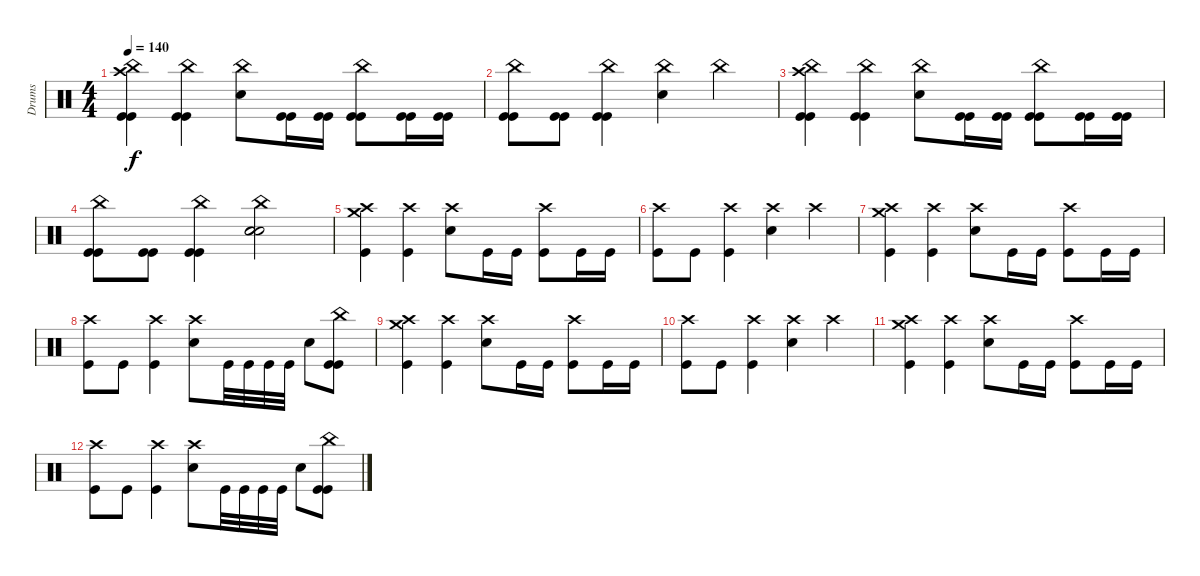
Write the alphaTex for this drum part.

\track ("Drums" "Drums") {instrument percussion bank 97}
\staff {score}
\articulation defaults
\ts (4 4)
\tempo 140
\clef neutral
\ks c
("Crash high (hit)" "China (hit)" "Kick (hit)" "Kick (hit)").4{dy f} ("China (hit)" "Kick (hit)" "Kick (hit)").4 ("China (hit)" "Electric Snare (hit)").8 ("Kick (hit)" "Kick (hit)").16 ("Kick (hit)" "Kick (hit)").16 ("China (hit)" "Kick (hit)" "Kick (hit)").8 ("Kick (hit)" "Kick (hit)").16 ("Kick (hit)" "Kick (hit)").16 |
("China (hit)" "Kick (hit)" "Kick (hit)").8 ("Kick (hit)" "Kick (hit)").8 ("China (hit)" "Kick (hit)" "Kick (hit)").4 ("China (hit)" "Electric Snare (hit)").4 "China (hit)".4 |
("Crash high (hit)" "China (hit)" "Kick (hit)" "Kick (hit)").4 ("China (hit)" "Kick (hit)" "Kick (hit)").4 ("China (hit)" "Electric Snare (hit)").8 ("Kick (hit)" "Kick (hit)").16 ("Kick (hit)" "Kick (hit)").16 ("China (hit)" "Kick (hit)" "Kick (hit)").8 ("Kick (hit)" "Kick (hit)").16 ("Kick (hit)" "Kick (hit)").16 |
("China (hit)" "Kick (hit)" "Kick (hit)").8 ("Kick (hit)" "Kick (hit)").8 ("China (hit)" "Kick (hit)" "Kick (hit)").4 ("China (hit)" "Electric Snare (hit)" "Electric Snare (hit)" "Electric Snare (hit)").2 |
("Crash medium (hit)" "Crash high (hit)" "Kick (hit)").4 ("Crash high (hit)" "Kick (hit)").4 ("Crash high (hit)" "Electric Snare (hit)").8 "Kick (hit)".16 "Kick (hit)".16 ("Crash high (hit)" "Kick (hit)").8 "Kick (hit)".16 "Kick (hit)".16 |
("Crash high (hit)" "Kick (hit)").8 "Kick (hit)".8 ("Crash high (hit)" "Kick (hit)").4 ("Crash high (hit)" "Electric Snare (hit)").4 "Crash high (hit)".4 |
("Crash medium (hit)" "Crash high (hit)" "Kick (hit)").4 ("Crash high (hit)" "Kick (hit)").4 ("Crash high (hit)" "Electric Snare (hit)").8 "Kick (hit)".16 "Kick (hit)".16 ("Crash high (hit)" "Kick (hit)").8 "Kick (hit)".16 "Kick (hit)".16 |
("Crash high (hit)" "Kick (hit)").8 "Kick (hit)".8 ("Crash high (hit)" "Kick (hit)").4 ("Crash high (hit)" "Electric Snare (hit)").8 "Kick (hit)".32 "Kick (hit)".32 "Kick (hit)".32 "Kick (hit)".32 "Electric Snare (hit)".8 ("China (hit)" "Kick (hit)" "Kick (hit)").8 |
("Crash medium (hit)" "Crash high (hit)" "Kick (hit)").4 ("Crash high (hit)" "Kick (hit)").4 ("Crash high (hit)" "Electric Snare (hit)").8 "Kick (hit)".16 "Kick (hit)".16 ("Crash high (hit)" "Kick (hit)").8 "Kick (hit)".16 "Kick (hit)".16 |
("Crash high (hit)" "Kick (hit)").8 "Kick (hit)".8 ("Crash high (hit)" "Kick (hit)").4 ("Crash high (hit)" "Electric Snare (hit)").4 "Crash high (hit)".4 |
("Crash medium (hit)" "Crash high (hit)" "Kick (hit)").4 ("Crash high (hit)" "Kick (hit)").4 ("Crash high (hit)" "Electric Snare (hit)").8 "Kick (hit)".16 "Kick (hit)".16 ("Crash high (hit)" "Kick (hit)").8 "Kick (hit)".16 "Kick (hit)".16 |
("Crash high (hit)" "Kick (hit)").8 "Kick (hit)".8 ("Crash high (hit)" "Kick (hit)").4 ("Crash high (hit)" "Electric Snare (hit)").8 "Kick (hit)".32 "Kick (hit)".32 "Kick (hit)".32 "Kick (hit)".32 "Electric Snare (hit)".8 ("China (hit)" "Kick (hit)" "Kick (hit)").8
